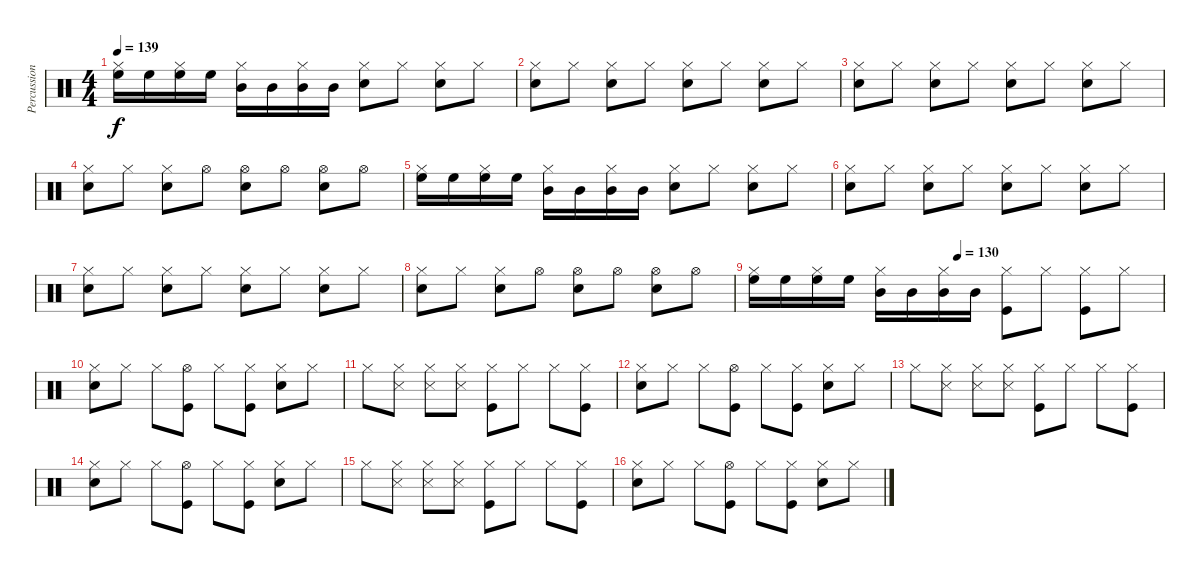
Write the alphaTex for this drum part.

\track ("Percussion" "Percussion") {instrument percussion}
\staff {score}
\articulation defaults
\ts (4 4)
\tempo 139
\clef neutral
\ks c
("High Floor Tom (hit)" "Hi-Hat (closed)").16{dy f} "High Floor Tom (hit)".16 ("High Floor Tom (hit)" "Hi-Hat (closed)").16 "High Floor Tom (hit)".16 ("Mid Tom (hit)" "Hi-Hat (closed)").16 "Mid Tom (hit)".16 ("Mid Tom (hit)" "Hi-Hat (closed)").16 "Mid Tom (hit)".16 ("Electric Snare (hit)" "Hi-Hat (closed)").8 "Hi-Hat (closed)".8 ("Electric Snare (hit)" "Hi-Hat (closed)").8 "Hi-Hat (closed)".8 |
("Electric Snare (hit)" "Hi-Hat (closed)").8 "Hi-Hat (closed)".8 ("Electric Snare (hit)" "Hi-Hat (closed)").8 "Hi-Hat (closed)".8 ("Electric Snare (hit)" "Hi-Hat (closed)").8 "Hi-Hat (closed)".8 ("Electric Snare (hit)" "Hi-Hat (closed)").8 "Hi-Hat (closed)".8 |
("Electric Snare (hit)" "Hi-Hat (closed)").8 "Hi-Hat (closed)".8 ("Electric Snare (hit)" "Hi-Hat (closed)").8 "Hi-Hat (closed)".8 ("Electric Snare (hit)" "Hi-Hat (closed)").8 "Hi-Hat (closed)".8 ("Electric Snare (hit)" "Hi-Hat (closed)").8 "Hi-Hat (closed)".8 |
("Electric Snare (hit)" "Hi-Hat (closed)").8 "Hi-Hat (closed)".8 ("Electric Snare (hit)" "Hi-Hat (closed)").8 "Hi-Hat (open)".8 ("Electric Snare (hit)" "Hi-Hat (open)").8 "Hi-Hat (open)".8 ("Electric Snare (hit)" "Hi-Hat (open)").8 "Hi-Hat (open)".8 |
("High Floor Tom (hit)" "Hi-Hat (closed)").16 "High Floor Tom (hit)".16 ("High Floor Tom (hit)" "Hi-Hat (closed)").16 "High Floor Tom (hit)".16 ("Mid Tom (hit)" "Hi-Hat (closed)").16 "Mid Tom (hit)".16 ("Mid Tom (hit)" "Hi-Hat (closed)").16 "Mid Tom (hit)".16 ("Electric Snare (hit)" "Hi-Hat (closed)").8 "Hi-Hat (closed)".8 ("Electric Snare (hit)" "Hi-Hat (closed)").8 "Hi-Hat (closed)".8 |
("Electric Snare (hit)" "Hi-Hat (closed)").8 "Hi-Hat (closed)".8 ("Electric Snare (hit)" "Hi-Hat (closed)").8 "Hi-Hat (closed)".8 ("Electric Snare (hit)" "Hi-Hat (closed)").8 "Hi-Hat (closed)".8 ("Electric Snare (hit)" "Hi-Hat (closed)").8 "Hi-Hat (closed)".8 |
("Electric Snare (hit)" "Hi-Hat (closed)").8 "Hi-Hat (closed)".8 ("Electric Snare (hit)" "Hi-Hat (closed)").8 "Hi-Hat (closed)".8 ("Electric Snare (hit)" "Hi-Hat (closed)").8 "Hi-Hat (closed)".8 ("Electric Snare (hit)" "Hi-Hat (closed)").8 "Hi-Hat (closed)".8 |
("Electric Snare (hit)" "Hi-Hat (closed)").8 "Hi-Hat (closed)".8 ("Electric Snare (hit)" "Hi-Hat (closed)").8 "Hi-Hat (open)".8 ("Electric Snare (hit)" "Hi-Hat (open)").8 "Hi-Hat (open)".8 ("Electric Snare (hit)" "Hi-Hat (open)").8 "Hi-Hat (open)".8 |
\tempo (130 0.5)
("High Floor Tom (hit)" "Hi-Hat (closed)").16 "High Floor Tom (hit)".16 ("High Floor Tom (hit)" "Hi-Hat (closed)").16 "High Floor Tom (hit)".16 ("Mid Tom (hit)" "Hi-Hat (closed)").16 "Mid Tom (hit)".16 ("Mid Tom (hit)" "Hi-Hat (closed)").16 "Mid Tom (hit)".16 ("Kick (hit)" "Hi-Hat (closed)").8 "Hi-Hat (closed)".8 ("Kick (hit)" "Hi-Hat (closed)").8 "Hi-Hat (closed)".8 |
("Electric Snare (hit)" "Hi-Hat (closed)").8 "Hi-Hat (closed)".8 "Hi-Hat (closed)".8 ("Kick (hit)" "Hi-Hat (open)").8 "Hi-Hat (closed)".8 ("Kick (hit)" "Hi-Hat (closed)").8 ("Electric Snare (hit)" "Hi-Hat (closed)").8 "Hi-Hat (closed)".8 |
"Hi-Hat (closed)".8 ("Snare (side stick) 3" "Hi-Hat (closed)").8 ("Snare (side stick) 3" "Hi-Hat (closed)").8 ("Snare (side stick) 3" "Hi-Hat (closed)").8 ("Kick (hit)" "Hi-Hat (closed)").8 "Hi-Hat (closed)".8 "Hi-Hat (closed)".8 ("Kick (hit)" "Hi-Hat (closed)").8 |
("Electric Snare (hit)" "Hi-Hat (closed)").8 "Hi-Hat (closed)".8 "Hi-Hat (closed)".8 ("Kick (hit)" "Hi-Hat (open)").8 "Hi-Hat (closed)".8 ("Kick (hit)" "Hi-Hat (closed)").8 ("Electric Snare (hit)" "Hi-Hat (closed)").8 "Hi-Hat (closed)".8 |
"Hi-Hat (closed)".8 ("Snare (side stick) 3" "Hi-Hat (closed)").8 ("Snare (side stick) 3" "Hi-Hat (closed)").8 ("Snare (side stick) 3" "Hi-Hat (closed)").8 ("Kick (hit)" "Hi-Hat (closed)").8 "Hi-Hat (closed)".8 "Hi-Hat (closed)".8 ("Kick (hit)" "Hi-Hat (closed)").8 |
("Electric Snare (hit)" "Hi-Hat (closed)").8 "Hi-Hat (closed)".8 "Hi-Hat (closed)".8 ("Kick (hit)" "Hi-Hat (open)").8 "Hi-Hat (closed)".8 ("Kick (hit)" "Hi-Hat (closed)").8 ("Electric Snare (hit)" "Hi-Hat (closed)").8 "Hi-Hat (closed)".8 |
"Hi-Hat (closed)".8 ("Snare (side stick) 3" "Hi-Hat (closed)").8 ("Snare (side stick) 3" "Hi-Hat (closed)").8 ("Snare (side stick) 3" "Hi-Hat (closed)").8 ("Kick (hit)" "Hi-Hat (closed)").8 "Hi-Hat (closed)".8 "Hi-Hat (closed)".8 ("Kick (hit)" "Hi-Hat (closed)").8 |
("Electric Snare (hit)" "Hi-Hat (closed)").8 "Hi-Hat (closed)".8 "Hi-Hat (closed)".8 ("Kick (hit)" "Hi-Hat (open)").8 "Hi-Hat (closed)".8 ("Kick (hit)" "Hi-Hat (closed)").8 ("Electric Snare (hit)" "Hi-Hat (closed)").8 "Hi-Hat (closed)".8
